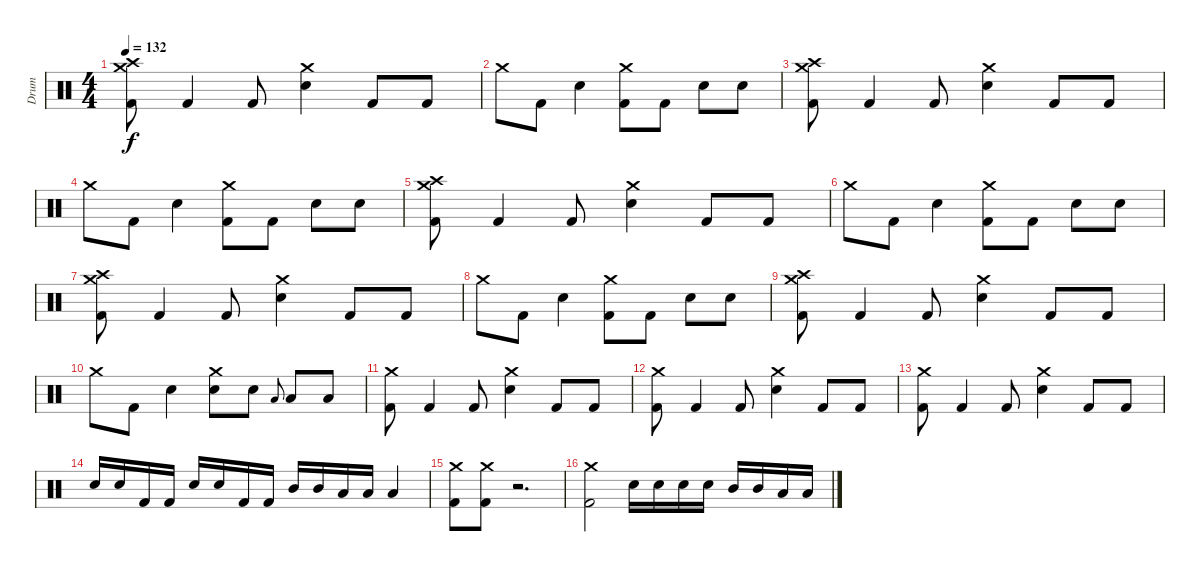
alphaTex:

\track ("Drum" "Drum") {instrument percussion}
\staff {score}
\articulation defaults
\ts (4 4)
\tempo 132
\clef neutral
\ks c
("Crash medium (hit)" "Crash high (hit)" "Kick (hit) 2").8{dy f} "Kick (hit) 2".4 "Kick (hit) 2".8 ("Crash medium (hit)" "Snare (hit) 2").4 "Kick (hit) 2".8 "Kick (hit) 2".8 |
"Crash medium (hit)".8 "Kick (hit) 2".8 "Snare (hit) 2".4 ("Crash medium (hit)" "Kick (hit) 2").8 "Kick (hit) 2".8 "Snare (hit) 2".8 "Snare (hit) 2".8 |
("Crash medium (hit)" "Crash high (hit)" "Kick (hit) 2").8 "Kick (hit) 2".4 "Kick (hit) 2".8 ("Crash medium (hit)" "Snare (hit) 2").4 "Kick (hit) 2".8 "Kick (hit) 2".8 |
"Crash medium (hit)".8 "Kick (hit) 2".8 "Snare (hit) 2".4 ("Crash medium (hit)" "Kick (hit) 2").8 "Kick (hit) 2".8 "Snare (hit) 2".8 "Snare (hit) 2".8 |
("Crash medium (hit)" "Crash high (hit)" "Kick (hit) 2").8 "Kick (hit) 2".4 "Kick (hit) 2".8 ("Crash medium (hit)" "Snare (hit) 2").4 "Kick (hit) 2".8 "Kick (hit) 2".8 |
"Crash medium (hit)".8 "Kick (hit) 2".8 "Snare (hit) 2".4 ("Crash medium (hit)" "Kick (hit) 2").8 "Kick (hit) 2".8 "Snare (hit) 2".8 "Snare (hit) 2".8 |
("Crash medium (hit)" "Crash high (hit)" "Kick (hit) 2").8 "Kick (hit) 2".4 "Kick (hit) 2".8 ("Crash medium (hit)" "Snare (hit) 2").4 "Kick (hit) 2".8 "Kick (hit) 2".8 |
"Crash medium (hit)".8 "Kick (hit) 2".8 "Snare (hit) 2".4 ("Crash medium (hit)" "Kick (hit) 2").8 "Kick (hit) 2".8 "Snare (hit) 2".8 "Snare (hit) 2".8 |
("Crash medium (hit)" "Crash high (hit)" "Kick (hit) 2").8 "Kick (hit) 2".4 "Kick (hit) 2".8 ("Crash medium (hit)" "Snare (hit) 2").4 "Kick (hit) 2".8 "Kick (hit) 2".8 |
"Crash medium (hit)".8 "Kick (hit) 2".8 "Snare (hit) 2".4 ("Crash medium (hit)" "Snare (hit) 2").8 "Snare (hit) 2".8 "Low Tom (hit)".8{gr onbeat} "Low Tom (hit)".8 "Low Tom (hit)".8 |
("Crash medium (hit)" "Kick (hit) 2").8 "Kick (hit) 2".4 "Kick (hit) 2".8 ("Crash medium (hit)" "Snare (hit) 2").4 "Kick (hit) 2".8 "Kick (hit) 2".8 |
("Crash medium (hit)" "Kick (hit) 2").8 "Kick (hit) 2".4 "Kick (hit) 2".8 ("Crash medium (hit)" "Snare (hit) 2").4 "Kick (hit) 2".8 "Kick (hit) 2".8 |
("Crash medium (hit)" "Kick (hit) 2").8 "Kick (hit) 2".4 "Kick (hit) 2".8 ("Crash medium (hit)" "Snare (hit) 2").4 "Kick (hit) 2".8 "Kick (hit) 2".8 |
"Snare (hit) 2".16 "Snare (hit) 2".16 "Kick (hit) 2".16 "Kick (hit) 2".16 "Snare (hit) 2".16 "Snare (hit) 2".16 "Kick (hit) 2".16 "Kick (hit) 2".16 "Mid Tom (hit)".16 "Mid Tom (hit)".16 "Low Tom (hit)".16 "Low Tom (hit)".16 "Low Floor Tom (hit)".4 |
("Crash medium (hit)" "Kick (hit) 2").8 ("Crash medium (hit)" "Kick (hit) 2").8 r.2{d} |
("Crash medium (hit)" "Kick (hit) 2").2 "Snare (hit) 2".16 "Snare (hit) 2".16 "Snare (hit) 2".16 "Snare (hit) 2".16 "Mid Tom (hit)".16 "Mid Tom (hit)".16 "Low Tom (hit)".16 "Low Tom (hit)".16
